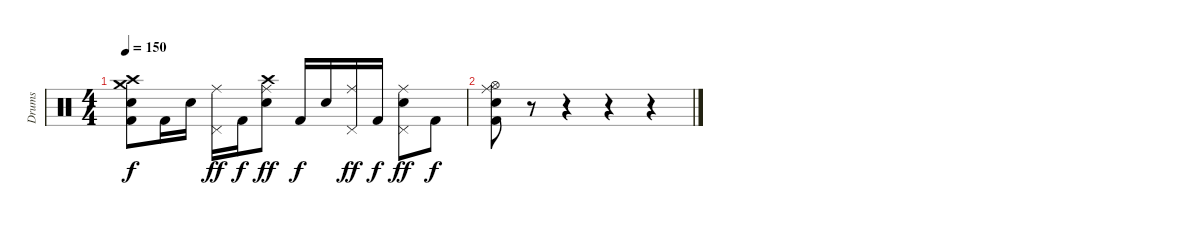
\track ("Drums" "Drums") {instrument percussion}
\staff {score}
\articulation defaults
\ts (4 4)
\tempo 150
\clef neutral
\ks c
("Crash medium (hit)" "Crash high (hit)" "Electric Snare (hit)" "Kick (hit) 2").8{dy f} "Kick (hit) 2".16 "Electric Snare (hit)".16 ("Pedal Hi-Hat (hit)" "Ride (middle)").16{dy ff} "Kick (hit) 2".16{dy f} ("Crash high (hit)" "Ride (middle)" "Electric Snare (hit)").8{dy ff} "Kick (hit) 2".16{dy f} "Electric Snare (hit)".16 ("Pedal Hi-Hat (hit)" "Ride (middle)").16{dy ff} "Kick (hit) 2".16{dy f} ("Pedal Hi-Hat (hit)" "Ride (middle)" "Electric Snare (hit)").8{dy ff} "Kick (hit) 2".8{dy f} |
("Ride (middle)" "Hi-Hat (open)" "Electric Snare (hit)" "Kick (hit) 2").8 r.8 r.4 r.4 r.4
